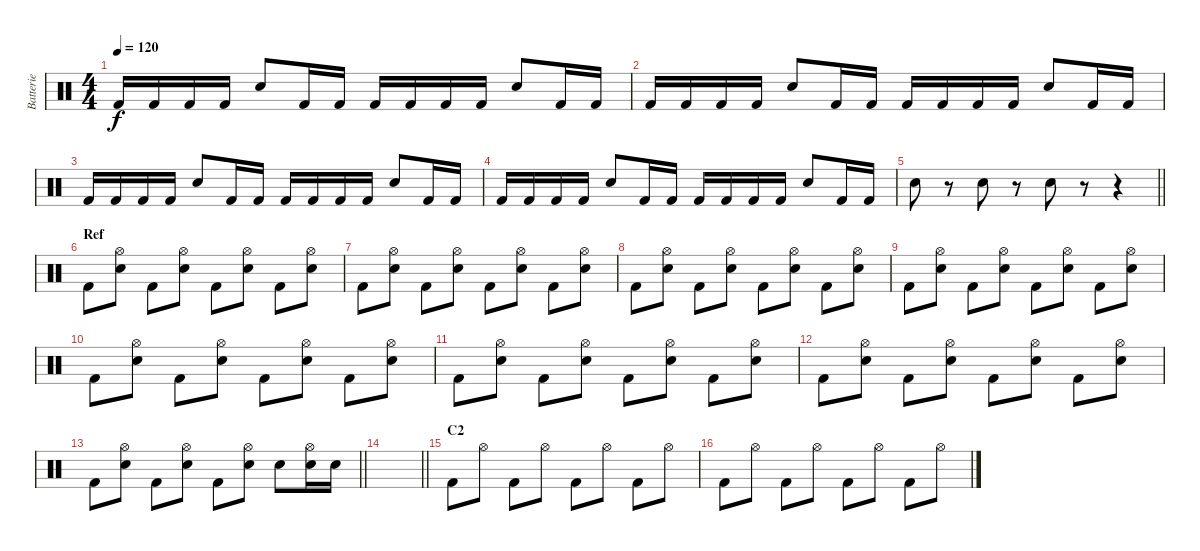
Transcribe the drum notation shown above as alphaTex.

\track ("Batterie" "Batterie") {instrument percussion}
\staff {score}
\articulation defaults
\ts (4 4)
\tempo 120
\clef neutral
\ks c "Kick (hit) 2".16{dy f} "Kick (hit) 2".16 "Kick (hit) 2".16 "Kick (hit) 2".16 "Electric Snare (hit)".8 "Kick (hit) 2".16 "Kick (hit) 2".16 "Kick (hit) 2".16 "Kick (hit) 2".16 "Kick (hit) 2".16 "Kick (hit) 2".16 "Electric Snare (hit)".8 "Kick (hit) 2".16 "Kick (hit) 2".16
|
"Kick (hit) 2".16 "Kick (hit) 2".16 "Kick (hit) 2".16 "Kick (hit) 2".16 "Electric Snare (hit)".8 "Kick (hit) 2".16 "Kick (hit) 2".16 "Kick (hit) 2".16 "Kick (hit) 2".16 "Kick (hit) 2".16 "Kick (hit) 2".16 "Electric Snare (hit)".8 "Kick (hit) 2".16 "Kick (hit) 2".16 |
"Kick (hit) 2".16 "Kick (hit) 2".16 "Kick (hit) 2".16 "Kick (hit) 2".16 "Electric Snare (hit)".8 "Kick (hit) 2".16 "Kick (hit) 2".16 "Kick (hit) 2".16 "Kick (hit) 2".16 "Kick (hit) 2".16 "Kick (hit) 2".16 "Electric Snare (hit)".8 "Kick (hit) 2".16 "Kick (hit) 2".16 |
"Kick (hit) 2".16 "Kick (hit) 2".16 "Kick (hit) 2".16 "Kick (hit) 2".16 "Electric Snare (hit)".8 "Kick (hit) 2".16 "Kick (hit) 2".16 "Kick (hit) 2".16 "Kick (hit) 2".16 "Kick (hit) 2".16 "Kick (hit) 2".16 "Electric Snare (hit)".8 "Kick (hit) 2".16 "Kick (hit) 2".16 |
\barLineRight lightlight "Electric Snare (hit)".8
r.8 "Electric Snare (hit)".8 r.8 "Electric Snare (hit)".8 r.8 r.4 |
\section ("" "Ref")
"Kick (hit) 2".8 ("Hi-Hat (open)" "Electric Snare (hit)").8 "Kick (hit) 2".8 ("Hi-Hat (open)" "Electric Snare (hit)").8 "Kick (hit) 2".8 ("Hi-Hat (open)" "Electric Snare (hit)").8 "Kick (hit) 2".8 ("Hi-Hat (open)" "Electric Snare (hit)").8 |
"Kick (hit) 2".8 ("Hi-Hat (open)" "Electric Snare (hit)").8 "Kick (hit) 2".8 ("Hi-Hat (open)" "Electric Snare (hit)").8 "Kick (hit) 2".8 ("Hi-Hat (open)" "Electric Snare (hit)").8 "Kick (hit) 2".8 ("Hi-Hat (open)" "Electric Snare (hit)").8 |
"Kick (hit) 2".8 ("Hi-Hat (open)" "Electric Snare (hit)").8 "Kick (hit) 2".8 ("Hi-Hat (open)" "Electric Snare (hit)").8 "Kick (hit) 2".8 ("Hi-Hat (open)" "Electric Snare (hit)").8 "Kick (hit) 2".8 ("Hi-Hat (open)" "Electric Snare (hit)").8 |
"Kick (hit) 2".8 ("Hi-Hat (open)" "Electric Snare (hit)").8 "Kick (hit) 2".8 ("Hi-Hat (open)" "Electric Snare (hit)").8 "Kick (hit) 2".8 ("Hi-Hat (open)" "Electric Snare (hit)").8 "Kick (hit) 2".8 ("Hi-Hat (open)" "Electric Snare (hit)").8 |
"Kick (hit) 2".8 ("Hi-Hat (open)" "Electric Snare (hit)").8 "Kick (hit) 2".8 ("Hi-Hat (open)" "Electric Snare (hit)").8 "Kick (hit) 2".8 ("Hi-Hat (open)" "Electric Snare (hit)").8 "Kick (hit) 2".8 ("Hi-Hat (open)" "Electric Snare (hit)").8 |
"Kick (hit) 2".8 ("Hi-Hat (open)" "Electric Snare (hit)").8 "Kick (hit) 2".8 ("Hi-Hat (open)" "Electric Snare (hit)").8 "Kick (hit) 2".8 ("Hi-Hat (open)" "Electric Snare (hit)").8 "Kick (hit) 2".8 ("Hi-Hat (open)" "Electric Snare (hit)").8 |
"Kick (hit) 2".8 ("Hi-Hat (open)" "Electric Snare (hit)").8 "Kick (hit) 2".8 ("Hi-Hat (open)" "Electric Snare (hit)").8 "Kick (hit) 2".8 ("Hi-Hat (open)" "Electric Snare (hit)").8 "Kick (hit) 2".8 ("Hi-Hat (open)" "Electric Snare (hit)").8 |
\barLineRight lightlight "Kick (hit) 2".8
("Hi-Hat (open)" "Electric Snare (hit)").8 "Kick (hit) 2".8 ("Hi-Hat (open)" "Electric Snare (hit)").8 "Kick (hit) 2".8 ("Hi-Hat (open)" "Electric Snare (hit)").8 "Electric Snare (hit)".8 ("Hi-Hat (open)" "Electric Snare (hit)").16 "Electric Snare (hit)".16 |
\barLineRight lightlight
|
\section ("" "C2")
"Kick (hit) 2".8 "Hi-Hat (open)".8 "Kick (hit) 2".8 "Hi-Hat (open)".8 "Kick (hit) 2".8 "Hi-Hat (open)".8 "Kick (hit) 2".8 "Hi-Hat (open)".8 |
"Kick (hit) 2".8 "Hi-Hat (open)".8 "Kick (hit) 2".8 "Hi-Hat (open)".8 "Kick (hit) 2".8 "Hi-Hat (open)".8 "Kick (hit) 2".8 "Hi-Hat (open)".8
